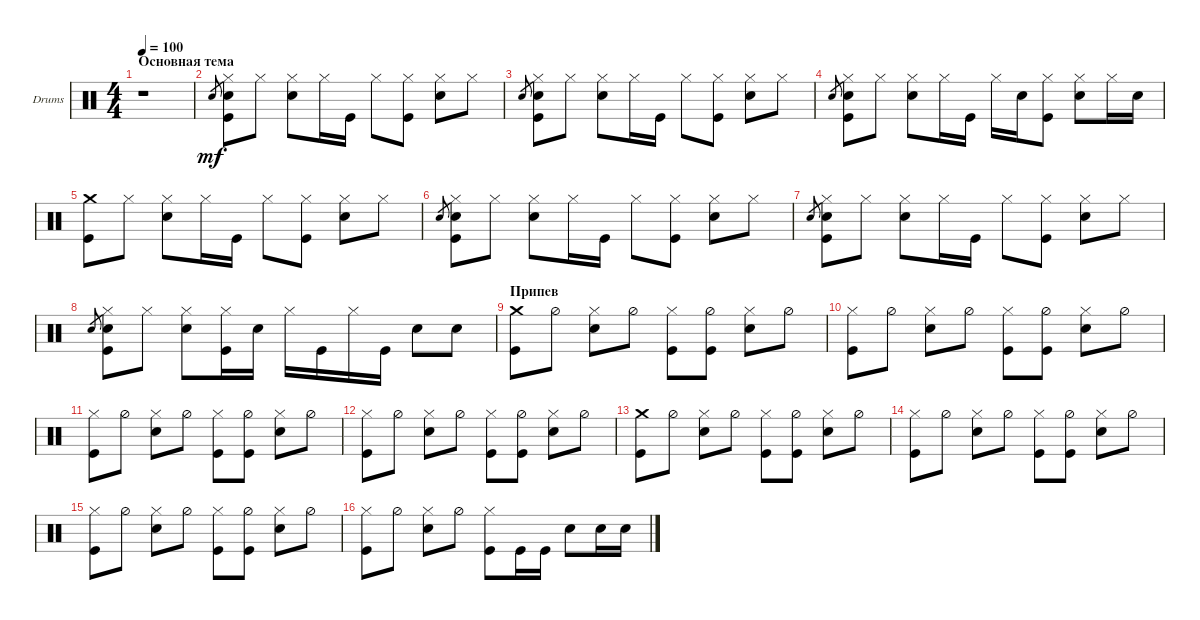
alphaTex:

\defaultSystemsLayout 4
\bracketExtendMode groupsimilarinstruments
\firstSystemTrackNameOrientation horizontal
\otherSystemsTrackNameOrientation horizontal
\track ("Drumkit" "Drums") {instrument percussion}
\staff {score}
\articulation defaults
\ts (4 4)
\section ("" "Основная тема")
\tempo 100
\clef neutral
\ks c
r.1{dy mf} |
"Snare (hit) 2".8{gr} ("Snare (hit) 2" "Hi-Hat (closed)" "Kick (hit)").8 "Hi-Hat (closed)".8 ("Hi-Hat (closed)" "Snare (hit) 2").8 "Hi-Hat (closed)".16 "Kick (hit)".16 "Hi-Hat (closed)".8 ("Hi-Hat (closed)" "Kick (hit)").8 ("Snare (hit) 2" "Hi-Hat (closed)").8 "Hi-Hat (closed)".8 |
"Snare (hit) 2".8{gr} ("Snare (hit) 2" "Hi-Hat (closed)" "Kick (hit)").8 "Hi-Hat (closed)".8 ("Hi-Hat (closed)" "Snare (hit) 2").8 "Hi-Hat (closed)".16 "Kick (hit)".16 "Hi-Hat (closed)".8 ("Hi-Hat (closed)" "Kick (hit)").8 ("Snare (hit) 2" "Hi-Hat (closed)").8 "Hi-Hat (closed)".8 |
"Snare (hit) 2".8{gr} ("Snare (hit) 2" "Hi-Hat (closed)" "Kick (hit)").8 "Hi-Hat (closed)".8 ("Snare (hit) 2" "Hi-Hat (closed)").8 "Hi-Hat (closed)".16 "Kick (hit)".16 "Hi-Hat (closed)".16 "Snare (hit) 2".16 ("Hi-Hat (closed)" "Kick (hit)").8 ("Hi-Hat (closed)" "Snare (hit) 2").8 "Hi-Hat (closed)".16 "Snare (hit) 2".16 |
("Kick (hit)" "Crash medium (hit)").8 "Hi-Hat (closed)".8 ("Snare (hit) 2" "Hi-Hat (closed)").8 "Hi-Hat (closed)".16 "Kick (hit)".16 "Hi-Hat (closed)".8 ("Kick (hit)" "Hi-Hat (closed)").8 ("Snare (hit) 2" "Hi-Hat (closed)").8 "Hi-Hat (closed)".8 |
"Snare (hit) 2".8{gr} ("Snare (hit) 2" "Hi-Hat (closed)" "Kick (hit)").8 "Hi-Hat (closed)".8 ("Hi-Hat (closed)" "Snare (hit) 2").8 "Hi-Hat (closed)".16 "Kick (hit)".16 "Hi-Hat (closed)".8 ("Hi-Hat (closed)" "Kick (hit)").8 ("Snare (hit) 2" "Hi-Hat (closed)").8 "Hi-Hat (closed)".8 |
"Snare (hit) 2".8{gr} ("Snare (hit) 2" "Hi-Hat (closed)" "Kick (hit)").8 "Hi-Hat (closed)".8 ("Hi-Hat (closed)" "Snare (hit) 2").8 "Hi-Hat (closed)".16 "Kick (hit)".16 "Hi-Hat (closed)".8 ("Hi-Hat (closed)" "Kick (hit)").8 ("Snare (hit) 2" "Hi-Hat (closed)").8 "Hi-Hat (closed)".8 |
"Snare (hit) 2".8{gr} ("Snare (hit) 2" "Hi-Hat (closed)" "Kick (hit)").8 "Hi-Hat (closed)".8 ("Hi-Hat (closed)" "Snare (hit) 2").8 ("Hi-Hat (closed)" "Kick (hit)").16 "Snare (hit) 2".16 "Hi-Hat (closed)".16 "Kick (hit)".16 "Hi-Hat (closed)".16 "Kick (hit)".16 "Snare (hit) 2".8 "Snare (hit) 2".8 |
\section ("" "Припев")
("Crash medium (hit)" "Kick (hit)").8 "Hi-Hat (half)".8 ("Hi-Hat (closed)" "Snare (hit) 2").8 "Hi-Hat (half)".8 ("Hi-Hat (closed)" "Kick (hit)").8 ("Hi-Hat (half)" "Kick (hit)").8 ("Hi-Hat (closed)" "Snare (hit) 2").8 "Hi-Hat (half)".8 |
("Kick (hit)" "Hi-Hat (closed)").8 "Hi-Hat (half)".8 ("Hi-Hat (closed)" "Snare (hit) 2").8 "Hi-Hat (half)".8 ("Hi-Hat (closed)" "Kick (hit)").8 ("Hi-Hat (half)" "Kick (hit)").8 ("Hi-Hat (closed)" "Snare (hit) 2").8 "Hi-Hat (half)".8 |
("Kick (hit)" "Hi-Hat (closed)").8 "Hi-Hat (half)".8 ("Hi-Hat (closed)" "Snare (hit) 2").8 "Hi-Hat (half)".8 ("Hi-Hat (closed)" "Kick (hit)").8 ("Hi-Hat (half)" "Kick (hit)").8 ("Hi-Hat (closed)" "Snare (hit) 2").8 "Hi-Hat (half)".8 |
("Kick (hit)" "Hi-Hat (closed)").8 "Hi-Hat (half)".8 ("Hi-Hat (closed)" "Snare (hit) 2").8 "Hi-Hat (half)".8 ("Hi-Hat (closed)" "Kick (hit)").8 ("Hi-Hat (half)" "Kick (hit)").8 ("Hi-Hat (closed)" "Snare (hit) 2").8 "Hi-Hat (half)".8 |
("Crash medium (hit)" "Kick (hit)").8 "Hi-Hat (half)".8 ("Hi-Hat (closed)" "Snare (hit) 2").8 "Hi-Hat (half)".8 ("Hi-Hat (closed)" "Kick (hit)").8 ("Hi-Hat (half)" "Kick (hit)").8 ("Hi-Hat (closed)" "Snare (hit) 2").8 "Hi-Hat (half)".8 |
("Kick (hit)" "Hi-Hat (closed)").8 "Hi-Hat (half)".8 ("Hi-Hat (closed)" "Snare (hit) 2").8 "Hi-Hat (half)".8 ("Hi-Hat (closed)" "Kick (hit)").8 ("Hi-Hat (half)" "Kick (hit)").8 ("Hi-Hat (closed)" "Snare (hit) 2").8 "Hi-Hat (half)".8 |
("Kick (hit)" "Hi-Hat (closed)").8 "Hi-Hat (half)".8 ("Hi-Hat (closed)" "Snare (hit) 2").8 "Hi-Hat (half)".8 ("Hi-Hat (closed)" "Kick (hit)").8 ("Hi-Hat (half)" "Kick (hit)").8 ("Hi-Hat (closed)" "Snare (hit) 2").8 "Hi-Hat (half)".8 |
("Kick (hit)" "Hi-Hat (closed)").8 "Hi-Hat (half)".8 ("Hi-Hat (closed)" "Snare (hit) 2").8 "Hi-Hat (half)".8 ("Hi-Hat (closed)" "Kick (hit)").8 "Kick (hit)".16 "Kick (hit)".16 "Snare (hit) 2".8 "Snare (hit) 2".16 "Snare (hit) 2".16
